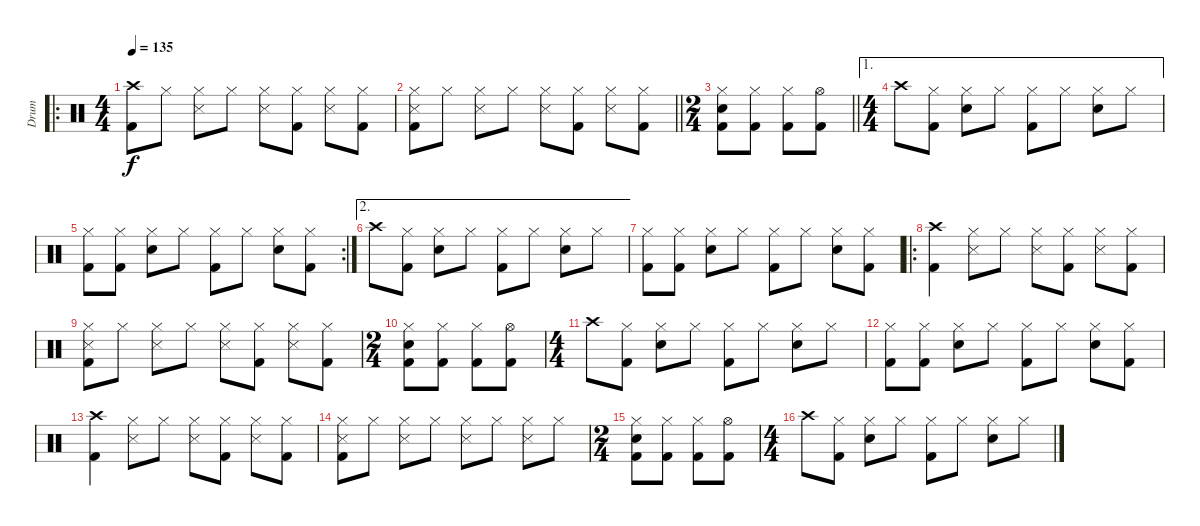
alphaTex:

\track ("Drum" "Drum") {instrument percussion}
\staff {score}
\articulation defaults
\ro
\ts (4 4)
\tempo 135
\clef neutral
\ks c
("Kick (hit) 2" "Crash high (hit)").8{dy f} "Hi-Hat (closed)".8 ("Hi-Hat (closed)" "Snare (side stick) 3").8 "Hi-Hat (closed)".8 ("Hi-Hat (closed)" "Snare (side stick) 3").8 ("Kick (hit) 2" "Hi-Hat (closed)").8 ("Hi-Hat (closed)" "Snare (side stick) 3").8 ("Kick (hit) 2" "Hi-Hat (closed)").8 |
\barLineRight lightlight
("Kick (hit) 2" "Hi-Hat (closed)" "Snare (side stick) 3").8 "Hi-Hat (closed)".8 ("Hi-Hat (closed)" "Snare (side stick) 3").8 "Hi-Hat (closed)".8 ("Hi-Hat (closed)" "Snare (side stick) 3").8 ("Kick (hit) 2" "Hi-Hat (closed)").8 ("Hi-Hat (closed)" "Snare (side stick) 3").8 ("Kick (hit) 2" "Hi-Hat (closed)").8 |
\ts (2 4)
\barLineRight lightlight
("Kick (hit) 2" "Hi-Hat (closed)" "Snare (hit) 2").8 ("Kick (hit) 2" "Hi-Hat (closed)").8 ("Kick (hit) 2" "Hi-Hat (closed)").8 ("Kick (hit) 2" "Hi-Hat (open)").8 |
\ae 1
\ts (4 4)
"Crash high (hit)".8 ("Kick (hit) 2" "Hi-Hat (closed)").8 ("Hi-Hat (closed)" "Snare (hit) 2").8 "Hi-Hat (closed)".8 ("Kick (hit) 2" "Hi-Hat (closed)").8 "Hi-Hat (closed)".8 ("Hi-Hat (closed)" "Snare (hit) 2").8 "Hi-Hat (closed)".8 |
\rc 2
("Kick (hit) 2" "Hi-Hat (closed)").8 ("Kick (hit) 2" "Hi-Hat (closed)").8 ("Hi-Hat (closed)" "Snare (hit) 2").8 "Hi-Hat (closed)".8 ("Kick (hit) 2" "Hi-Hat (closed)").8 "Hi-Hat (closed)".8 ("Hi-Hat (closed)" "Snare (hit) 2").8 ("Kick (hit) 2" "Hi-Hat (closed)").8 |
\ae 2 "Crash high (hit)".8
("Kick (hit) 2" "Hi-Hat (closed)").8 ("Hi-Hat (closed)" "Snare (hit) 2").8 "Hi-Hat (closed)".8 ("Kick (hit) 2" "Hi-Hat (closed)").8 "Hi-Hat (closed)".8 ("Hi-Hat (closed)" "Snare (hit) 2").8 "Hi-Hat (closed)".8 |
("Kick (hit) 2" "Hi-Hat (closed)").8 ("Kick (hit) 2" "Hi-Hat (closed)").8 ("Hi-Hat (closed)" "Snare (hit) 2").8 "Hi-Hat (closed)".8 ("Kick (hit) 2" "Hi-Hat (closed)").8 "Hi-Hat (closed)".8 ("Hi-Hat (closed)" "Snare (hit) 2").8 ("Kick (hit) 2" "Hi-Hat (closed)").8 |
\ro
("Kick (hit) 2" "Crash high (hit)").4 ("Hi-Hat (closed)" "Snare (side stick) 3").8 "Hi-Hat (closed)".8 ("Hi-Hat (closed)" "Snare (side stick) 3").8 ("Kick (hit) 2" "Hi-Hat (closed)").8 ("Hi-Hat (closed)" "Snare (side stick) 3").8 ("Kick (hit) 2" "Hi-Hat (closed)").8 |
("Kick (hit) 2" "Hi-Hat (closed)" "Snare (side stick) 3").8 "Hi-Hat (closed)".8 ("Hi-Hat (closed)" "Snare (side stick) 3").8 "Hi-Hat (closed)".8 ("Hi-Hat (closed)" "Snare (side stick) 3").8 ("Kick (hit) 2" "Hi-Hat (closed)").8 ("Hi-Hat (closed)" "Snare (side stick) 3").8 ("Kick (hit) 2" "Hi-Hat (closed)").8 |
\ts (2 4)
("Kick (hit) 2" "Hi-Hat (closed)" "Snare (hit) 2").8 ("Kick (hit) 2" "Hi-Hat (closed)").8 ("Kick (hit) 2" "Hi-Hat (closed)").8 ("Kick (hit) 2" "Hi-Hat (open)").8 |
\ts (4 4)
"Crash high (hit)".8 ("Kick (hit) 2" "Hi-Hat (closed)").8 ("Hi-Hat (closed)" "Snare (hit) 2").8 "Hi-Hat (closed)".8 ("Kick (hit) 2" "Hi-Hat (closed)").8 "Hi-Hat (closed)".8 ("Hi-Hat (closed)" "Snare (hit) 2").8 "Hi-Hat (closed)".8 |
("Kick (hit) 2" "Hi-Hat (closed)").8 ("Kick (hit) 2" "Hi-Hat (closed)").8 ("Hi-Hat (closed)" "Snare (hit) 2").8 "Hi-Hat (closed)".8 ("Kick (hit) 2" "Hi-Hat (closed)").8 "Hi-Hat (closed)".8 ("Hi-Hat (closed)" "Snare (hit) 2").8 ("Kick (hit) 2" "Hi-Hat (closed)").8 |
("Kick (hit) 2" "Crash high (hit)").4 ("Hi-Hat (closed)" "Snare (side stick) 3").8 "Hi-Hat (closed)".8 ("Hi-Hat (closed)" "Snare (side stick) 3").8 ("Kick (hit) 2" "Hi-Hat (closed)").8 ("Hi-Hat (closed)" "Snare (side stick) 3").8 ("Kick (hit) 2" "Hi-Hat (closed)").8 |
("Kick (hit) 2" "Hi-Hat (closed)" "Snare (side stick) 3").8 "Hi-Hat (closed)".8 ("Hi-Hat (closed)" "Snare (side stick) 3").8 "Hi-Hat (closed)".8 ("Hi-Hat (closed)" "Snare (side stick) 3").8 "Hi-Hat (closed)".8 ("Hi-Hat (closed)" "Snare (side stick) 3").8 "Hi-Hat (closed)".8 |
\ts (2 4)
("Kick (hit) 2" "Hi-Hat (closed)" "Snare (hit) 2").8 ("Kick (hit) 2" "Hi-Hat (closed)").8 ("Kick (hit) 2" "Hi-Hat (closed)").8 ("Kick (hit) 2" "Hi-Hat (open)").8 |
\ts (4 4)
"Crash high (hit)".8 ("Kick (hit) 2" "Hi-Hat (closed)").8 ("Hi-Hat (closed)" "Snare (hit) 2").8 "Hi-Hat (closed)".8 ("Kick (hit) 2" "Hi-Hat (closed)").8 "Hi-Hat (closed)".8 ("Hi-Hat (closed)" "Snare (hit) 2").8 "Hi-Hat (closed)".8
